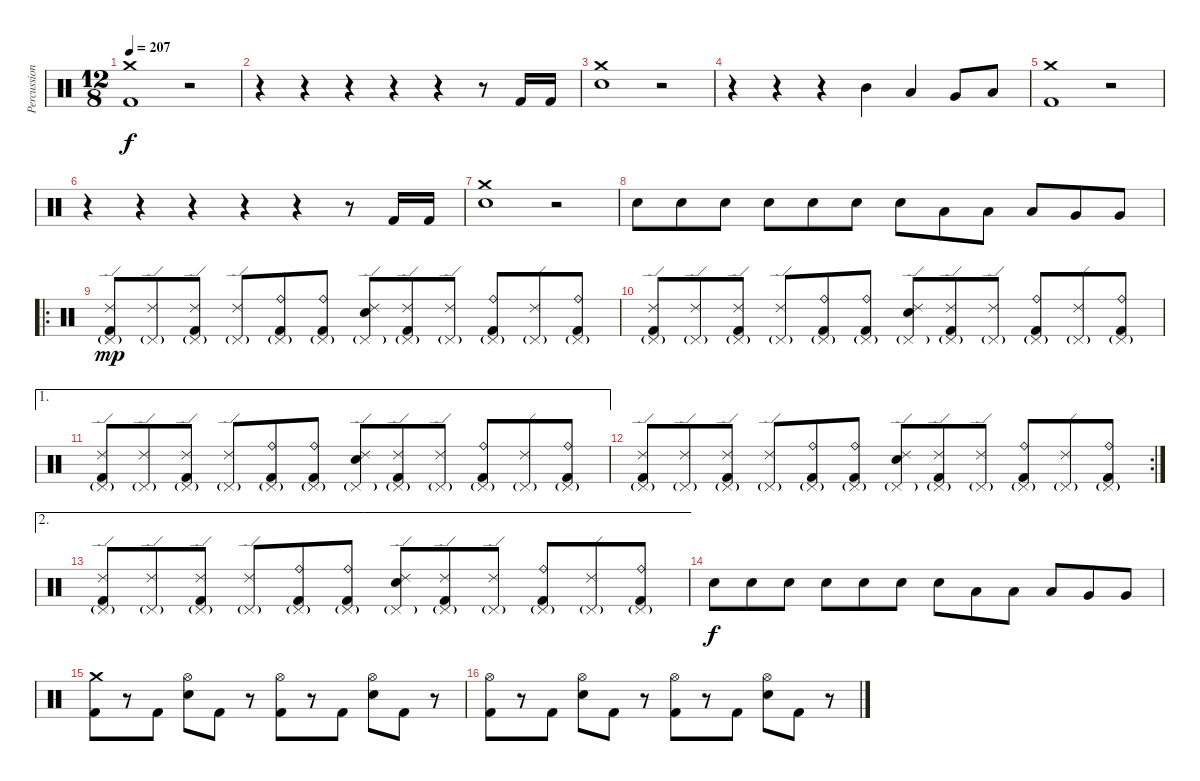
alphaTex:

\track ("Percussion" "Percussion") {instrument percussion}
\staff {score}
\articulation defaults
\ts (12 8)
\tempo 207
\clef neutral
\ks c
("Crash medium (hit)" "Kick (hit) 2").1{dy f} r.2 |
r.4 r.4 r.4 r.4 r.4 r.8 "Kick (hit) 2".16 "Kick (hit) 2".16 |
("Crash medium (hit)" "Snare (hit) 2").1 r.2 |
r.4 r.4 r.4 "Mid Tom (hit)".4 "Low Tom (hit)".4 "Very Low Tom (hit)".8 "Low Floor Tom (hit)".8 |
("Crash medium (hit)" "Kick (hit) 2").1 r.2 |
r.4 r.4 r.4 r.4 r.4 r.8 "Kick (hit) 2".16 "Kick (hit) 2".16 |
("Crash medium (hit)" "Snare (hit) 2").1 r.2 |
"Electric Snare (hit)".8 "Electric Snare (hit)".8 "Electric Snare (hit)".8 "Electric Snare (hit)".8 "Electric Snare (hit)".8 "Electric Snare (hit)".8 "Electric Snare (hit)".8 "Low Tom (hit)".8 "Low Tom (hit)".8 "Low Tom (hit)".8 "Very Low Tom (hit)".8 "Very Low Tom (hit)".8 |
\ro
("Ride (edge) 2" "Pedal Hi-Hat (hit)"{g} "Kick (hit) 2").8{dy mp} ("Ride (edge) 2" "Pedal Hi-Hat (hit)"{g}).8 ("Ride (edge) 2" "Pedal Hi-Hat (hit)"{g} "Kick (hit) 2").8 ("Ride (edge) 2" "Pedal Hi-Hat (hit)"{g}).8 ("Ride (bell)" "Pedal Hi-Hat (hit)"{g} "Kick (hit) 2").8 ("Ride (bell)" "Pedal Hi-Hat (hit)"{g} "Kick (hit) 2").8 ("Ride (edge) 2" "Pedal Hi-Hat (hit)"{g} "Electric Snare (hit)").8 ("Ride (edge) 2" "Pedal Hi-Hat (hit)"{g} "Kick (hit) 2").8 ("Ride (edge) 2" "Pedal Hi-Hat (hit)"{g}).8 ("Ride (bell)" "Pedal Hi-Hat (hit)"{g} "Kick (hit) 2").8 ("Ride (edge) 2" "Pedal Hi-Hat (hit)"{g}).8 ("Ride (bell)" "Pedal Hi-Hat (hit)"{g} "Kick (hit) 2").8 |
("Ride (edge) 2" "Pedal Hi-Hat (hit)"{g} "Kick (hit) 2").8 ("Ride (edge) 2" "Pedal Hi-Hat (hit)"{g}).8 ("Ride (edge) 2" "Pedal Hi-Hat (hit)"{g} "Kick (hit) 2").8 ("Ride (edge) 2" "Pedal Hi-Hat (hit)"{g}).8 ("Ride (bell)" "Pedal Hi-Hat (hit)"{g} "Kick (hit) 2").8 ("Ride (bell)" "Pedal Hi-Hat (hit)"{g} "Kick (hit) 2").8 ("Ride (edge) 2" "Pedal Hi-Hat (hit)"{g} "Electric Snare (hit)").8 ("Ride (edge) 2" "Pedal Hi-Hat (hit)"{g} "Kick (hit) 2").8 ("Ride (edge) 2" "Pedal Hi-Hat (hit)"{g}).8 ("Ride (bell)" "Pedal Hi-Hat (hit)"{g} "Kick (hit) 2").8 ("Ride (edge) 2" "Pedal Hi-Hat (hit)"{g}).8 ("Ride (bell)" "Pedal Hi-Hat (hit)"{g} "Kick (hit) 2").8 |
\ae 1
("Ride (edge) 2" "Pedal Hi-Hat (hit)"{g} "Kick (hit) 2").8 ("Ride (edge) 2" "Pedal Hi-Hat (hit)"{g}).8 ("Ride (edge) 2" "Pedal Hi-Hat (hit)"{g} "Kick (hit) 2").8 ("Ride (edge) 2" "Pedal Hi-Hat (hit)"{g}).8 ("Ride (bell)" "Pedal Hi-Hat (hit)"{g} "Kick (hit) 2").8 ("Ride (bell)" "Pedal Hi-Hat (hit)"{g} "Kick (hit) 2").8 ("Ride (edge) 2" "Pedal Hi-Hat (hit)"{g} "Electric Snare (hit)").8 ("Ride (edge) 2" "Pedal Hi-Hat (hit)"{g} "Kick (hit) 2").8 ("Ride (edge) 2" "Pedal Hi-Hat (hit)"{g}).8 ("Ride (bell)" "Pedal Hi-Hat (hit)"{g} "Kick (hit) 2").8 ("Ride (edge) 2" "Pedal Hi-Hat (hit)"{g}).8 ("Ride (bell)" "Pedal Hi-Hat (hit)"{g} "Kick (hit) 2").8 |
\rc 2
("Ride (edge) 2" "Pedal Hi-Hat (hit)"{g} "Kick (hit) 2").8 ("Ride (edge) 2" "Pedal Hi-Hat (hit)"{g}).8 ("Ride (edge) 2" "Pedal Hi-Hat (hit)"{g} "Kick (hit) 2").8 ("Ride (edge) 2" "Pedal Hi-Hat (hit)"{g}).8 ("Ride (bell)" "Pedal Hi-Hat (hit)"{g} "Kick (hit) 2").8 ("Ride (bell)" "Pedal Hi-Hat (hit)"{g} "Kick (hit) 2").8 ("Ride (edge) 2" "Pedal Hi-Hat (hit)"{g} "Electric Snare (hit)").8 ("Ride (edge) 2" "Pedal Hi-Hat (hit)"{g} "Kick (hit) 2").8 ("Ride (edge) 2" "Pedal Hi-Hat (hit)"{g}).8 ("Ride (bell)" "Pedal Hi-Hat (hit)"{g} "Kick (hit) 2").8 ("Ride (edge) 2" "Pedal Hi-Hat (hit)"{g}).8 ("Ride (bell)" "Pedal Hi-Hat (hit)"{g} "Kick (hit) 2").8 |
\ae 2
("Ride (edge) 2" "Pedal Hi-Hat (hit)"{g} "Kick (hit) 2").8 ("Ride (edge) 2" "Pedal Hi-Hat (hit)"{g}).8 ("Ride (edge) 2" "Pedal Hi-Hat (hit)"{g} "Kick (hit) 2").8 ("Ride (edge) 2" "Pedal Hi-Hat (hit)"{g}).8 ("Ride (bell)" "Pedal Hi-Hat (hit)"{g} "Kick (hit) 2").8 ("Ride (bell)" "Pedal Hi-Hat (hit)"{g} "Kick (hit) 2").8 ("Ride (edge) 2" "Pedal Hi-Hat (hit)"{g} "Electric Snare (hit)").8 ("Ride (edge) 2" "Pedal Hi-Hat (hit)"{g} "Kick (hit) 2").8 ("Ride (edge) 2" "Pedal Hi-Hat (hit)"{g}).8 ("Ride (bell)" "Pedal Hi-Hat (hit)"{g} "Kick (hit) 2").8 ("Ride (edge) 2" "Pedal Hi-Hat (hit)"{g}).8 ("Ride (bell)" "Pedal Hi-Hat (hit)"{g} "Kick (hit) 2").8 |
"Electric Snare (hit)".8{dy f} "Electric Snare (hit)".8 "Electric Snare (hit)".8 "Electric Snare (hit)".8 "Electric Snare (hit)".8 "Electric Snare (hit)".8 "Electric Snare (hit)".8 "Low Tom (hit)".8 "Low Tom (hit)".8 "Low Tom (hit)".8 "Very Low Tom (hit)".8 "Very Low Tom (hit)".8 |
("Crash medium (hit)" "Kick (hit) 2").8 r.8 "Kick (hit) 2".8 ("Hi-Hat (open)" "Electric Snare (hit)").8 "Kick (hit) 2".8 r.8 ("Hi-Hat (open)" "Kick (hit) 2").8 r.8 "Kick (hit) 2".8 ("Hi-Hat (open)" "Electric Snare (hit)").8 "Kick (hit) 2".8 r.8 |
("Hi-Hat (open)" "Kick (hit) 2").8 r.8 "Kick (hit) 2".8 ("Hi-Hat (open)" "Electric Snare (hit)").8 "Kick (hit) 2".8 r.8 ("Hi-Hat (open)" "Kick (hit) 2").8 r.8 "Kick (hit) 2".8 ("Hi-Hat (open)" "Electric Snare (hit)").8 "Kick (hit) 2".8 r.8
